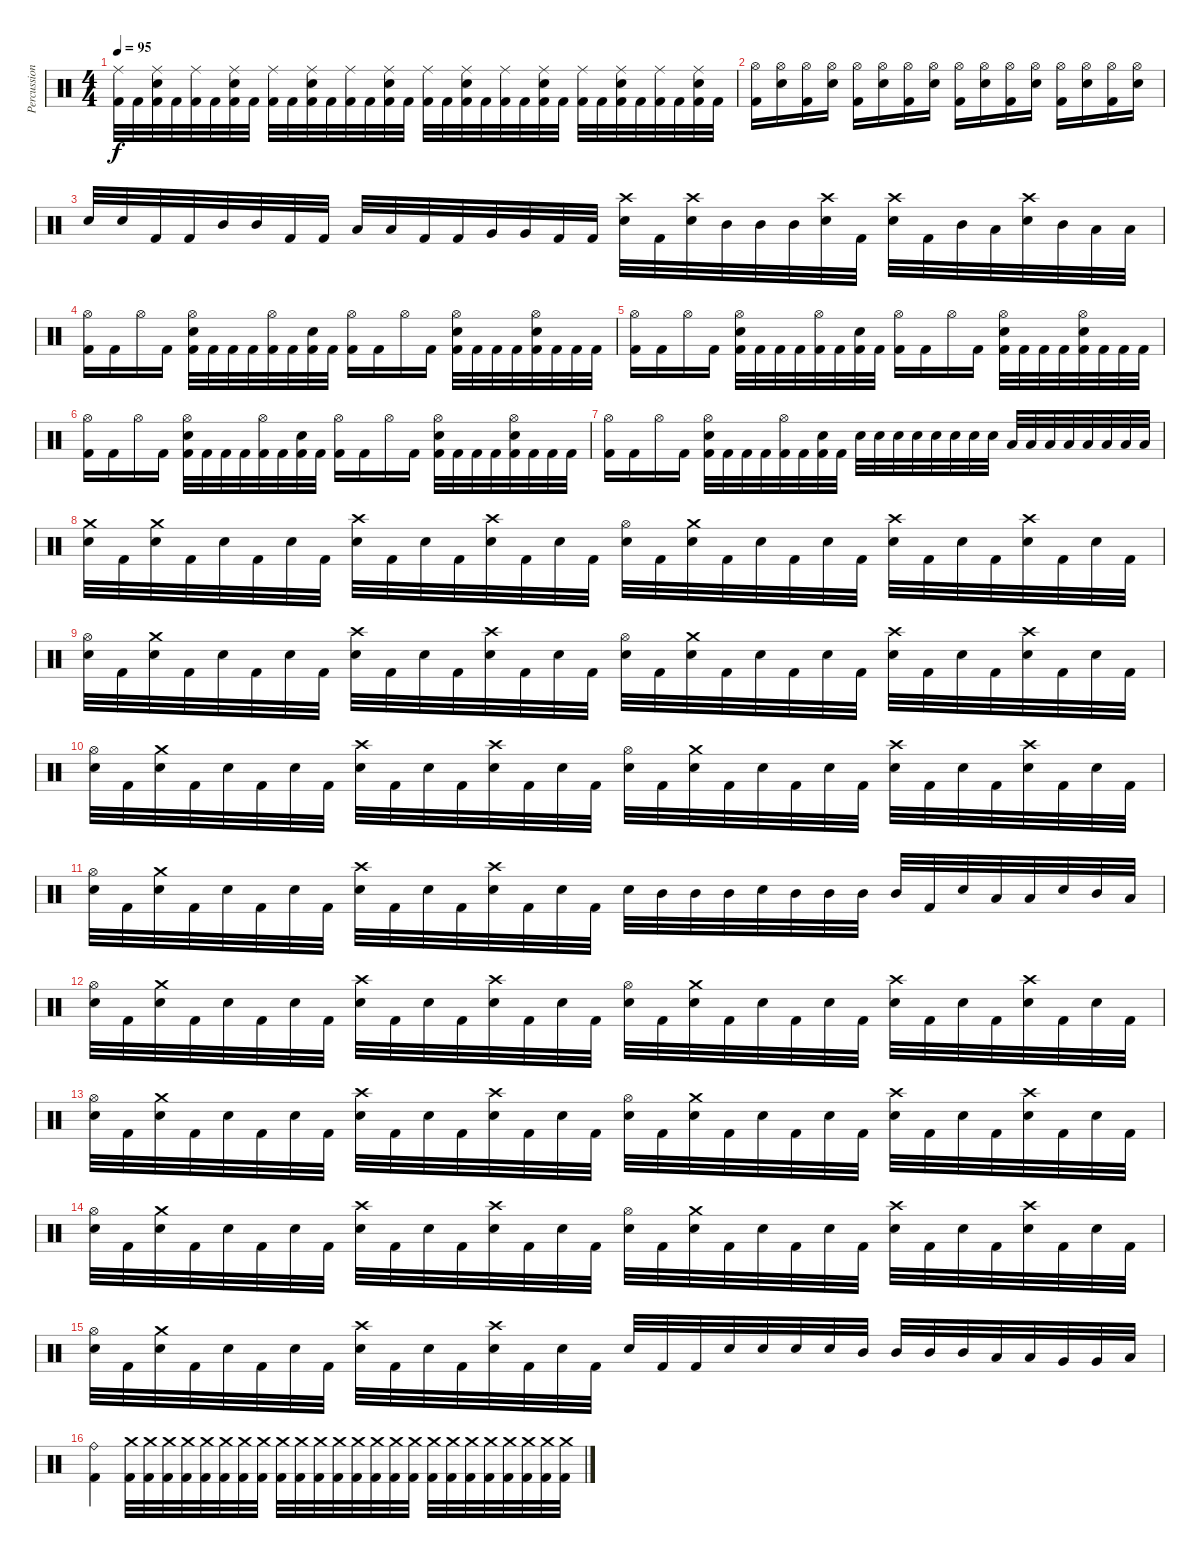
\track ("Percussion" "Percussion") {instrument percussion}
\staff {score}
\articulation defaults
\ts (4 4)
\tempo 95
\clef neutral
\ks c
("Ride (middle)" "Kick (hit) 2").32{dy f} "Kick (hit) 2".32 ("Ride (middle)" "Electric Snare (hit)" "Kick (hit) 2").32 "Kick (hit) 2".32 ("Ride (middle)" "Kick (hit) 2").32 "Kick (hit) 2".32 ("Ride (middle)" "Electric Snare (hit)" "Kick (hit) 2").32 "Kick (hit) 2".32 ("Ride (middle)" "Kick (hit) 2").32 "Kick (hit) 2".32 ("Ride (middle)" "Electric Snare (hit)" "Kick (hit) 2").32 "Kick (hit) 2".32 ("Ride (middle)" "Kick (hit) 2").32 "Kick (hit) 2".32 ("Ride (middle)" "Electric Snare (hit)" "Kick (hit) 2").32 "Kick (hit) 2".32 ("Ride (middle)" "Kick (hit) 2").32 "Kick (hit) 2".32 ("Ride (middle)" "Electric Snare (hit)" "Kick (hit) 2").32 "Kick (hit) 2".32 ("Ride (middle)" "Kick (hit) 2").32 "Kick (hit) 2".32 ("Ride (middle)" "Electric Snare (hit)" "Kick (hit) 2").32 "Kick (hit) 2".32 ("Ride (middle)" "Kick (hit) 2").32 "Kick (hit) 2".32 ("Ride (middle)" "Electric Snare (hit)" "Kick (hit) 2").32 "Kick (hit) 2".32 ("Ride (middle)" "Kick (hit) 2").32 "Kick (hit) 2".32 ("Ride (middle)" "Electric Snare (hit)" "Kick (hit) 2").32 "Kick (hit) 2".32 |
("Hi-Hat (open)" "Kick (hit) 2").16 ("Hi-Hat (open)" "Electric Snare (hit)").16 ("Hi-Hat (open)" "Kick (hit) 2").16 ("Hi-Hat (open)" "Electric Snare (hit)").16 ("Hi-Hat (open)" "Kick (hit) 2").16 ("Hi-Hat (open)" "Electric Snare (hit)").16 ("Hi-Hat (open)" "Kick (hit) 2").16 ("Hi-Hat (open)" "Electric Snare (hit)").16 ("Hi-Hat (open)" "Kick (hit) 2").16 ("Hi-Hat (open)" "Electric Snare (hit)").16 ("Hi-Hat (open)" "Kick (hit) 2").16 ("Hi-Hat (open)" "Electric Snare (hit)").16 ("Hi-Hat (open)" "Kick (hit) 2").16 ("Hi-Hat (open)" "Electric Snare (hit)").16 ("Hi-Hat (open)" "Kick (hit) 2").16 ("Hi-Hat (open)" "Electric Snare (hit)").16 |
"Electric Snare (hit)".32 "Electric Snare (hit)".32 "Kick (hit) 2".32 "Kick (hit) 2".32 "Mid Tom (hit)".32 "Mid Tom (hit)".32 "Kick (hit) 2".32 "Kick (hit) 2".32 "Low Tom (hit)".32 "Low Tom (hit)".32 "Kick (hit) 2".32 "Kick (hit) 2".32 "Very Low Tom (hit)".32 "Very Low Tom (hit)".32 "Kick (hit) 2".32 "Kick (hit) 2".32 ("Crash high (hit)" "Electric Snare (hit)").32 "Kick (hit) 2".32 ("Crash high (hit)" "Electric Snare (hit)").32 "Mid Tom (hit)".32 "Mid Tom (hit)".32 "Mid Tom (hit)".32 ("Crash high (hit)" "Electric Snare (hit)").32 "Kick (hit) 2".32 ("Crash high (hit)" "Electric Snare (hit)").32 "Kick (hit) 2".32 "Mid Tom (hit)".32 "Low Tom (hit)".32 ("Crash high (hit)" "Electric Snare (hit)").32 "Mid Tom (hit)".32 "Low Tom (hit)".32 "Low Tom (hit)".32 |
("Hi-Hat (open)" "Kick (hit) 2").16 "Kick (hit) 2".16 "Hi-Hat (open)".16 "Kick (hit) 2".16 ("Hi-Hat (open)" "Electric Snare (hit)" "Kick (hit) 2").32 "Kick (hit) 2".32 "Kick (hit) 2".32 "Kick (hit) 2".32 ("Hi-Hat (open)" "Kick (hit) 2").32 "Kick (hit) 2".32 ("Electric Snare (hit)" "Kick (hit) 2").32 "Kick (hit) 2".32 ("Hi-Hat (open)" "Kick (hit) 2").16 "Kick (hit) 2".16 "Hi-Hat (open)".16 "Kick (hit) 2".16 ("Hi-Hat (open)" "Electric Snare (hit)" "Kick (hit) 2").32 "Kick (hit) 2".32 "Kick (hit) 2".32 "Kick (hit) 2".32 ("Hi-Hat (open)" "Electric Snare (hit)" "Kick (hit) 2").32 "Kick (hit) 2".32 "Kick (hit) 2".32 "Kick (hit) 2".32 |
("Hi-Hat (open)" "Kick (hit) 2").16 "Kick (hit) 2".16 "Hi-Hat (open)".16 "Kick (hit) 2".16 ("Hi-Hat (open)" "Electric Snare (hit)" "Kick (hit) 2").32 "Kick (hit) 2".32 "Kick (hit) 2".32 "Kick (hit) 2".32 ("Hi-Hat (open)" "Kick (hit) 2").32 "Kick (hit) 2".32 ("Electric Snare (hit)" "Kick (hit) 2").32 "Kick (hit) 2".32 ("Hi-Hat (open)" "Kick (hit) 2").16 "Kick (hit) 2".16 "Hi-Hat (open)".16 "Kick (hit) 2".16 ("Hi-Hat (open)" "Electric Snare (hit)" "Kick (hit) 2").32 "Kick (hit) 2".32 "Kick (hit) 2".32 "Kick (hit) 2".32 ("Hi-Hat (open)" "Electric Snare (hit)" "Kick (hit) 2").32 "Kick (hit) 2".32 "Kick (hit) 2".32 "Kick (hit) 2".32 |
("Hi-Hat (open)" "Kick (hit) 2").16 "Kick (hit) 2".16 "Hi-Hat (open)".16 "Kick (hit) 2".16 ("Hi-Hat (open)" "Electric Snare (hit)" "Kick (hit) 2").32 "Kick (hit) 2".32 "Kick (hit) 2".32 "Kick (hit) 2".32 ("Hi-Hat (open)" "Kick (hit) 2").32 "Kick (hit) 2".32 ("Electric Snare (hit)" "Kick (hit) 2").32 "Kick (hit) 2".32 ("Hi-Hat (open)" "Kick (hit) 2").16 "Kick (hit) 2".16 "Hi-Hat (open)".16 "Kick (hit) 2".16 ("Hi-Hat (open)" "Electric Snare (hit)" "Kick (hit) 2").32 "Kick (hit) 2".32 "Kick (hit) 2".32 "Kick (hit) 2".32 ("Hi-Hat (open)" "Electric Snare (hit)" "Kick (hit) 2").32 "Kick (hit) 2".32 "Kick (hit) 2".32 "Kick (hit) 2".32 |
("Hi-Hat (open)" "Kick (hit) 2").16 "Kick (hit) 2".16 "Hi-Hat (open)".16 "Kick (hit) 2".16 ("Hi-Hat (open)" "Electric Snare (hit)" "Kick (hit) 2").32 "Kick (hit) 2".32 "Kick (hit) 2".32 "Kick (hit) 2".32 ("Hi-Hat (open)" "Kick (hit) 2").32 "Kick (hit) 2".32 ("Electric Snare (hit)" "Kick (hit) 2").32 "Kick (hit) 2".32 "Electric Snare (hit)".32 "Electric Snare (hit)".32 "Electric Snare (hit)".32 "Electric Snare (hit)".32 "Electric Snare (hit)".32 "Electric Snare (hit)".32 "Electric Snare (hit)".32 "Electric Snare (hit)".32 "Low Tom (hit)".32 "Low Tom (hit)".32 "Low Tom (hit)".32 "Low Tom (hit)".32 "Low Tom (hit)".32 "Low Tom (hit)".32 "Low Tom (hit)".32 "Low Tom (hit)".32 |
("Crash medium (hit)" "Electric Snare (hit)").32 "Kick (hit) 2".32 ("Crash medium (hit)" "Electric Snare (hit)").32 "Kick (hit) 2".32 "Electric Snare (hit)".32 "Kick (hit) 2".32 "Electric Snare (hit)".32 "Kick (hit) 2".32 ("Crash high (hit)" "Electric Snare (hit)").32 "Kick (hit) 2".32 "Electric Snare (hit)".32 "Kick (hit) 2".32 ("Crash high (hit)" "Electric Snare (hit)").32 "Kick (hit) 2".32 "Electric Snare (hit)".32 "Kick (hit) 2".32 ("Hi-Hat (open)" "Electric Snare (hit)").32 "Kick (hit) 2".32 ("Crash medium (hit)" "Electric Snare (hit)").32 "Kick (hit) 2".32 "Electric Snare (hit)".32 "Kick (hit) 2".32 "Electric Snare (hit)".32 "Kick (hit) 2".32 ("Crash high (hit)" "Electric Snare (hit)").32 "Kick (hit) 2".32 "Electric Snare (hit)".32 "Kick (hit) 2".32 ("Crash high (hit)" "Electric Snare (hit)").32 "Kick (hit) 2".32 "Electric Snare (hit)".32 "Kick (hit) 2".32 |
("Hi-Hat (open)" "Electric Snare (hit)").32 "Kick (hit) 2".32 ("Crash medium (hit)" "Electric Snare (hit)").32 "Kick (hit) 2".32 "Electric Snare (hit)".32 "Kick (hit) 2".32 "Electric Snare (hit)".32 "Kick (hit) 2".32 ("Crash high (hit)" "Electric Snare (hit)").32 "Kick (hit) 2".32 "Electric Snare (hit)".32 "Kick (hit) 2".32 ("Crash high (hit)" "Electric Snare (hit)").32 "Kick (hit) 2".32 "Electric Snare (hit)".32 "Kick (hit) 2".32 ("Hi-Hat (open)" "Electric Snare (hit)").32 "Kick (hit) 2".32 ("Crash medium (hit)" "Electric Snare (hit)").32 "Kick (hit) 2".32 "Electric Snare (hit)".32 "Kick (hit) 2".32 "Electric Snare (hit)".32 "Kick (hit) 2".32 ("Crash high (hit)" "Electric Snare (hit)").32 "Kick (hit) 2".32 "Electric Snare (hit)".32 "Kick (hit) 2".32 ("Crash high (hit)" "Electric Snare (hit)").32 "Kick (hit) 2".32 "Electric Snare (hit)".32 "Kick (hit) 2".32 |
("Hi-Hat (open)" "Electric Snare (hit)").32 "Kick (hit) 2".32 ("Crash medium (hit)" "Electric Snare (hit)").32 "Kick (hit) 2".32 "Electric Snare (hit)".32 "Kick (hit) 2".32 "Electric Snare (hit)".32 "Kick (hit) 2".32 ("Crash high (hit)" "Electric Snare (hit)").32 "Kick (hit) 2".32 "Electric Snare (hit)".32 "Kick (hit) 2".32 ("Crash high (hit)" "Electric Snare (hit)").32 "Kick (hit) 2".32 "Electric Snare (hit)".32 "Kick (hit) 2".32 ("Hi-Hat (open)" "Electric Snare (hit)").32 "Kick (hit) 2".32 ("Crash medium (hit)" "Electric Snare (hit)").32 "Kick (hit) 2".32 "Electric Snare (hit)".32 "Kick (hit) 2".32 "Electric Snare (hit)".32 "Kick (hit) 2".32 ("Crash high (hit)" "Electric Snare (hit)").32 "Kick (hit) 2".32 "Electric Snare (hit)".32 "Kick (hit) 2".32 ("Crash high (hit)" "Electric Snare (hit)").32 "Kick (hit) 2".32 "Electric Snare (hit)".32 "Kick (hit) 2".32 |
("Hi-Hat (open)" "Electric Snare (hit)").32 "Kick (hit) 2".32 ("Crash medium (hit)" "Electric Snare (hit)").32 "Kick (hit) 2".32 "Electric Snare (hit)".32 "Kick (hit) 2".32 "Electric Snare (hit)".32 "Kick (hit) 2".32 ("Crash high (hit)" "Electric Snare (hit)").32 "Kick (hit) 2".32 "Electric Snare (hit)".32 "Kick (hit) 2".32 ("Crash high (hit)" "Electric Snare (hit)").32 "Kick (hit) 2".32 "Electric Snare (hit)".32 "Kick (hit) 2".32 "Electric Snare (hit)".32 "Mid Tom (hit)".32 "Mid Tom (hit)".32 "Mid Tom (hit)".32 "Electric Snare (hit)".32 "Mid Tom (hit)".32 "Mid Tom (hit)".32 "Mid Tom (hit)".32 "Mid Tom (hit)".32 "Kick (hit) 2".32 "Electric Snare (hit)".32 "Low Tom (hit)".32 "Low Tom (hit)".32 "Electric Snare (hit)".32 "Mid Tom (hit)".32 "Low Tom (hit)".32 |
("Hi-Hat (open)" "Electric Snare (hit)").32 "Kick (hit) 2".32 ("Crash medium (hit)" "Electric Snare (hit)").32 "Kick (hit) 2".32 "Electric Snare (hit)".32 "Kick (hit) 2".32 "Electric Snare (hit)".32 "Kick (hit) 2".32 ("Crash high (hit)" "Electric Snare (hit)").32 "Kick (hit) 2".32 "Electric Snare (hit)".32 "Kick (hit) 2".32 ("Crash high (hit)" "Electric Snare (hit)").32 "Kick (hit) 2".32 "Electric Snare (hit)".32 "Kick (hit) 2".32 ("Hi-Hat (open)" "Electric Snare (hit)").32 "Kick (hit) 2".32 ("Crash medium (hit)" "Electric Snare (hit)").32 "Kick (hit) 2".32 "Electric Snare (hit)".32 "Kick (hit) 2".32 "Electric Snare (hit)".32 "Kick (hit) 2".32 ("Crash high (hit)" "Electric Snare (hit)").32 "Kick (hit) 2".32 "Electric Snare (hit)".32 "Kick (hit) 2".32 ("Crash high (hit)" "Electric Snare (hit)").32 "Kick (hit) 2".32 "Electric Snare (hit)".32 "Kick (hit) 2".32 |
("Hi-Hat (open)" "Electric Snare (hit)").32 "Kick (hit) 2".32 ("Crash medium (hit)" "Electric Snare (hit)").32 "Kick (hit) 2".32 "Electric Snare (hit)".32 "Kick (hit) 2".32 "Electric Snare (hit)".32 "Kick (hit) 2".32 ("Crash high (hit)" "Electric Snare (hit)").32 "Kick (hit) 2".32 "Electric Snare (hit)".32 "Kick (hit) 2".32 ("Crash high (hit)" "Electric Snare (hit)").32 "Kick (hit) 2".32 "Electric Snare (hit)".32 "Kick (hit) 2".32 ("Hi-Hat (open)" "Electric Snare (hit)").32 "Kick (hit) 2".32 ("Crash medium (hit)" "Electric Snare (hit)").32 "Kick (hit) 2".32 "Electric Snare (hit)".32 "Kick (hit) 2".32 "Electric Snare (hit)".32 "Kick (hit) 2".32 ("Crash high (hit)" "Electric Snare (hit)").32 "Kick (hit) 2".32 "Electric Snare (hit)".32 "Kick (hit) 2".32 ("Crash high (hit)" "Electric Snare (hit)").32 "Kick (hit) 2".32 "Electric Snare (hit)".32 "Kick (hit) 2".32 |
("Hi-Hat (open)" "Electric Snare (hit)").32 "Kick (hit) 2".32 ("Crash medium (hit)" "Electric Snare (hit)").32 "Kick (hit) 2".32 "Electric Snare (hit)".32 "Kick (hit) 2".32 "Electric Snare (hit)".32 "Kick (hit) 2".32 ("Crash high (hit)" "Electric Snare (hit)").32 "Kick (hit) 2".32 "Electric Snare (hit)".32 "Kick (hit) 2".32 ("Crash high (hit)" "Electric Snare (hit)").32 "Kick (hit) 2".32 "Electric Snare (hit)".32 "Kick (hit) 2".32 ("Hi-Hat (open)" "Electric Snare (hit)").32 "Kick (hit) 2".32 ("Crash medium (hit)" "Electric Snare (hit)").32 "Kick (hit) 2".32 "Electric Snare (hit)".32 "Kick (hit) 2".32 "Electric Snare (hit)".32 "Kick (hit) 2".32 ("Crash high (hit)" "Electric Snare (hit)").32 "Kick (hit) 2".32 "Electric Snare (hit)".32 "Kick (hit) 2".32 ("Crash high (hit)" "Electric Snare (hit)").32 "Kick (hit) 2".32 "Electric Snare (hit)".32 "Kick (hit) 2".32 |
("Hi-Hat (open)" "Electric Snare (hit)").32 "Kick (hit) 2".32 ("Crash medium (hit)" "Electric Snare (hit)").32 "Kick (hit) 2".32 "Electric Snare (hit)".32 "Kick (hit) 2".32 "Electric Snare (hit)".32 "Kick (hit) 2".32 ("Crash high (hit)" "Electric Snare (hit)").32 "Kick (hit) 2".32 "Electric Snare (hit)".32 "Kick (hit) 2".32 ("Crash high (hit)" "Electric Snare (hit)").32 "Kick (hit) 2".32 "Electric Snare (hit)".32 "Kick (hit) 2".32 "Electric Snare (hit)".32 "Kick (hit) 2".32 "Kick (hit) 2".32 "Electric Snare (hit)".32 "Electric Snare (hit)".32 "Electric Snare (hit)".32 "Electric Snare (hit)".32 "Mid Tom (hit)".32 "Mid Tom (hit)".32 "Mid Tom (hit)".32 "Mid Tom (hit)".32 "Low Tom (hit)".32 "Low Tom (hit)".32 "Very Low Tom (hit)".32 "Very Low Tom (hit)".32 "Low Floor Tom (hit)".32 |
("Ride (bell)" "Kick (hit) 2").4 ("Crash medium (hit)" "Kick (hit) 2").32 ("Crash medium (hit)" "Kick (hit) 2").32 ("Crash medium (hit)" "Kick (hit) 2").32 ("Crash medium (hit)" "Kick (hit) 2").32 ("Crash medium (hit)" "Kick (hit) 2").32 ("Crash medium (hit)" "Kick (hit) 2").32 ("Crash medium (hit)" "Kick (hit) 2").32 ("Crash medium (hit)" "Kick (hit) 2").32 ("Crash medium (hit)" "Kick (hit) 2").32 ("Crash medium (hit)" "Kick (hit) 2").32 ("Crash medium (hit)" "Kick (hit) 2").32 ("Crash medium (hit)" "Kick (hit) 2").32 ("Crash medium (hit)" "Kick (hit) 2").32 ("Crash medium (hit)" "Kick (hit) 2").32 ("Crash medium (hit)" "Kick (hit) 2").32 ("Crash medium (hit)" "Kick (hit) 2").32 ("Crash medium (hit)" "Kick (hit) 2").32 ("Crash medium (hit)" "Kick (hit) 2").32 ("Crash medium (hit)" "Kick (hit) 2").32 ("Crash medium (hit)" "Kick (hit) 2").32 ("Crash medium (hit)" "Kick (hit) 2").32 ("Crash medium (hit)" "Kick (hit) 2").32 ("Crash medium (hit)" "Kick (hit) 2").32 ("Crash medium (hit)" "Kick (hit) 2").32
